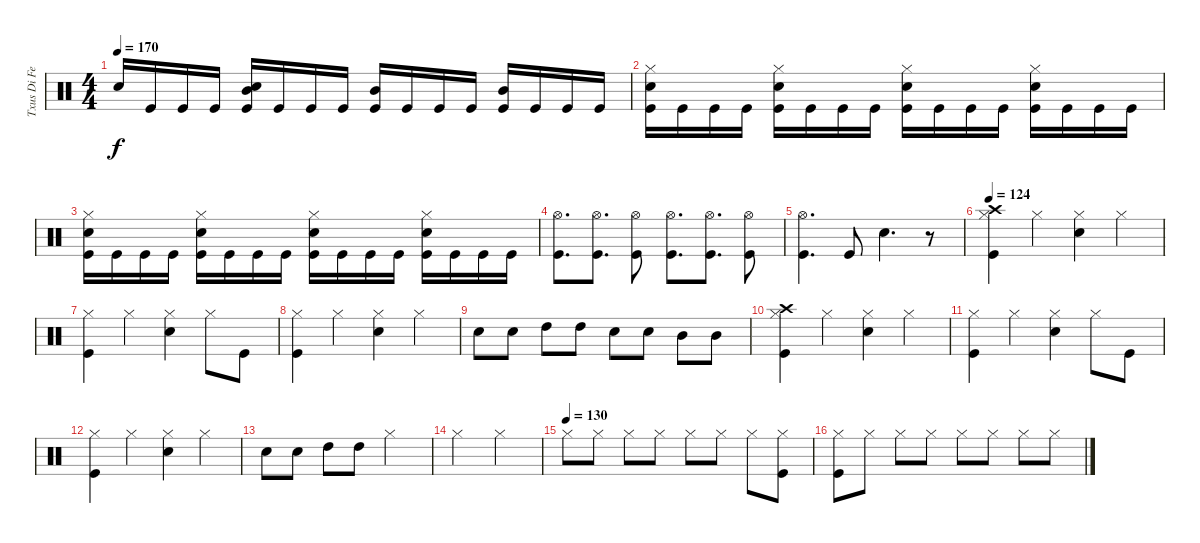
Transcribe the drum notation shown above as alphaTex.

\track ("Txus Di Fellatio" "Txus Di Fe") {instrument percussion}
\staff {score}
\articulation defaults
\ts (4 4)
\tempo 170
\clef neutral
\ks c "Snare (hit) 2".16{dy f} "Kick (hit)".16 "Kick (hit)".16 "Kick (hit)".16
("Snare (hit) 2" "Kick (hit)" "Mid Tom (hit)").16 "Kick (hit)".16 "Kick (hit)".16 "Kick (hit)".16 ("Kick (hit)" "Mid Tom (hit)").16 "Kick (hit)".16 "Kick (hit)".16 "Kick (hit)".16 ("Kick (hit)" "Mid Tom (hit)").16 "Kick (hit)".16 "Kick (hit)".16 "Kick (hit)".16 |
("Hi-Hat (closed)" "Snare (hit) 2" "Kick (hit)").16 "Kick (hit)".16 "Kick (hit)".16 "Kick (hit)".16 ("Hi-Hat (closed)" "Snare (hit) 2" "Kick (hit)").16 "Kick (hit)".16 "Kick (hit)".16 "Kick (hit)".16 ("Hi-Hat (closed)" "Snare (hit) 2" "Kick (hit)").16 "Kick (hit)".16 "Kick (hit)".16 "Kick (hit)".16 ("Hi-Hat (closed)" "Snare (hit) 2" "Kick (hit)").16 "Kick (hit)".16 "Kick (hit)".16 "Kick (hit)".16 |
("Hi-Hat (closed)" "Snare (hit) 2" "Kick (hit)").16 "Kick (hit)".16 "Kick (hit)".16 "Kick (hit)".16 ("Hi-Hat (closed)" "Snare (hit) 2" "Kick (hit)").16 "Kick (hit)".16 "Kick (hit)".16 "Kick (hit)".16 ("Hi-Hat (closed)" "Snare (hit) 2" "Kick (hit)").16 "Kick (hit)".16 "Kick (hit)".16 "Kick (hit)".16 ("Hi-Hat (closed)" "Snare (hit) 2" "Kick (hit)").16 "Kick (hit)".16 "Kick (hit)".16 "Kick (hit)".16 |
("Hi-Hat (open)" "Kick (hit)").8{d} ("Hi-Hat (open)" "Kick (hit)").8{d} ("Hi-Hat (open)" "Kick (hit)").8 ("Hi-Hat (open)" "Kick (hit)").8{d} ("Hi-Hat (open)" "Kick (hit)").8{d} ("Hi-Hat (open)" "Kick (hit)").8 |
("Hi-Hat (open)" "Kick (hit)").4{d} "Kick (hit)".8 "Snare (hit) 2".4{d} r.8 |
\tempo 124
("Crash high (hit)" "Hi-Hat (closed)" "Kick (hit)").4 "Hi-Hat (closed)".4 ("Hi-Hat (closed)" "Snare (hit) 2").4 "Hi-Hat (closed)".4 |
("Hi-Hat (closed)" "Kick (hit)").4 "Hi-Hat (closed)".4 ("Hi-Hat (closed)" "Snare (hit) 2").4 "Hi-Hat (closed)".8 "Kick (hit)".8 |
("Hi-Hat (closed)" "Kick (hit)").4 "Hi-Hat (closed)".4 ("Hi-Hat (closed)" "Snare (hit) 2").4 "Hi-Hat (closed)".4 |
"Snare (hit) 2".8 "Snare (hit) 2".8 "High Tom (hit)".8 "High Tom (hit)".8 "Electric Snare (hit)".8 "Electric Snare (hit)".8 "Mid Tom (hit)".8 "Mid Tom (hit)".8 |
("Crash high (hit)" "Hi-Hat (closed)" "Kick (hit)").4 "Hi-Hat (closed)".4 ("Hi-Hat (closed)" "Snare (hit) 2").4 "Hi-Hat (closed)".4 |
("Hi-Hat (closed)" "Kick (hit)").4 "Hi-Hat (closed)".4 ("Hi-Hat (closed)" "Snare (hit) 2").4 "Hi-Hat (closed)".8 "Kick (hit)".8 |
("Hi-Hat (closed)" "Kick (hit)").4 "Hi-Hat (closed)".4 ("Hi-Hat (closed)" "Snare (hit) 2").4 "Hi-Hat (closed)".4 |
"Snare (hit) 2".8 "Snare (hit) 2".8 "High Tom (hit)".8 "High Tom (hit)".8 "Hi-Hat (closed)".2 |
"Hi-Hat (closed)".2 "Hi-Hat (closed)".2 |
\tempo (130)
"Hi-Hat (closed)".8 "Hi-Hat (closed)".8 "Hi-Hat (closed)".8 "Hi-Hat (closed)".8 "Hi-Hat (closed)".8 "Hi-Hat (closed)".8 "Hi-Hat (closed)".8 ("Hi-Hat (closed)" "Kick (hit)").8 |
("Hi-Hat (closed)" "Kick (hit)").8 "Hi-Hat (closed)".8 "Hi-Hat (closed)".8 "Hi-Hat (closed)".8 "Hi-Hat (closed)".8 "Hi-Hat (closed)".8 "Hi-Hat (closed)".8 "Hi-Hat (closed)".8
